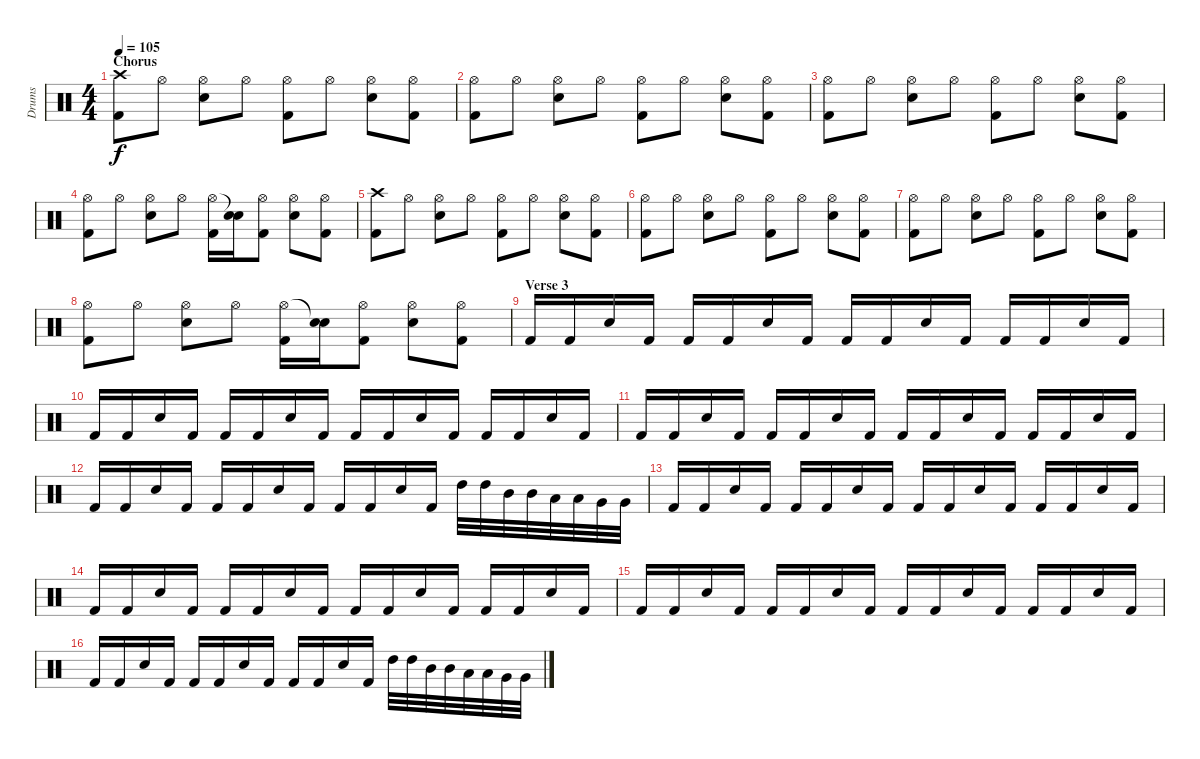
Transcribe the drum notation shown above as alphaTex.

\track ("Drums" "Drums") {instrument percussion}
\staff {score}
\articulation defaults
\ts (4 4)
\section ("" "Chorus")
\tempo 105
\clef neutral
\ks c
("Crash high (hit)" "Kick (hit) 2").8{dy f} "Hi-Hat (open)".8 ("Hi-Hat (open)" "Electric Snare (hit)").8 "Hi-Hat (open)".8 ("Hi-Hat (open)" "Kick (hit) 2").8 "Hi-Hat (open)".8 ("Hi-Hat (open)" "Electric Snare (hit)").8 ("Hi-Hat (open)" "Kick (hit) 2").8 |
("Hi-Hat (open)" "Kick (hit) 2").8 "Hi-Hat (open)".8 ("Hi-Hat (open)" "Electric Snare (hit)").8 "Hi-Hat (open)".8 ("Hi-Hat (open)" "Kick (hit) 2").8 "Hi-Hat (open)".8 ("Hi-Hat (open)" "Electric Snare (hit)").8 ("Hi-Hat (open)" "Kick (hit) 2").8 |
("Hi-Hat (open)" "Kick (hit) 2").8 "Hi-Hat (open)".8 ("Hi-Hat (open)" "Electric Snare (hit)").8 "Hi-Hat (open)".8 ("Hi-Hat (open)" "Kick (hit) 2").8 "Hi-Hat (open)".8 ("Hi-Hat (open)" "Electric Snare (hit)").8 ("Hi-Hat (open)" "Kick (hit) 2").8 |
("Hi-Hat (open)" "Kick (hit) 2").8 "Hi-Hat (open)".8 ("Hi-Hat (open)" "Electric Snare (hit)").8 "Hi-Hat (open)".8 ("Hi-Hat (open)" "Kick (hit) 2").16 ("Snare (hit)"{t} "Electric Snare (hit)").16 ("Hi-Hat (open)" "Kick (hit) 2").8 ("Hi-Hat (open)" "Electric Snare (hit)").8 ("Hi-Hat (open)" "Kick (hit) 2").8 |
("Crash high (hit)" "Kick (hit) 2").8 "Hi-Hat (open)".8 ("Hi-Hat (open)" "Electric Snare (hit)").8 "Hi-Hat (open)".8 ("Hi-Hat (open)" "Kick (hit) 2").8 "Hi-Hat (open)".8 ("Hi-Hat (open)" "Electric Snare (hit)").8 ("Hi-Hat (open)" "Kick (hit) 2").8 |
("Hi-Hat (open)" "Kick (hit) 2").8 "Hi-Hat (open)".8 ("Hi-Hat (open)" "Electric Snare (hit)").8 "Hi-Hat (open)".8 ("Hi-Hat (open)" "Kick (hit) 2").8 "Hi-Hat (open)".8 ("Hi-Hat (open)" "Electric Snare (hit)").8 ("Hi-Hat (open)" "Kick (hit) 2").8 |
("Hi-Hat (open)" "Kick (hit) 2").8 "Hi-Hat (open)".8 ("Hi-Hat (open)" "Electric Snare (hit)").8 "Hi-Hat (open)".8 ("Hi-Hat (open)" "Kick (hit) 2").8 "Hi-Hat (open)".8 ("Hi-Hat (open)" "Electric Snare (hit)").8 ("Hi-Hat (open)" "Kick (hit) 2").8 |
("Hi-Hat (open)" "Kick (hit) 2").8 "Hi-Hat (open)".8 ("Hi-Hat (open)" "Electric Snare (hit)").8 "Hi-Hat (open)".8 ("Hi-Hat (open)" "Kick (hit) 2").16 ("Snare (hit)"{t} "Electric Snare (hit)").16 ("Hi-Hat (open)" "Kick (hit) 2").8 ("Hi-Hat (open)" "Electric Snare (hit)").8 ("Hi-Hat (open)" "Kick (hit) 2").8 |
\section ("" "Verse 3")
"Kick (hit) 2".16 "Kick (hit) 2".16 "Electric Snare (hit)".16 "Kick (hit) 2".16 "Kick (hit) 2".16 "Kick (hit) 2".16 "Electric Snare (hit)".16 "Kick (hit) 2".16 "Kick (hit) 2".16 "Kick (hit) 2".16 "Electric Snare (hit)".16 "Kick (hit) 2".16 "Kick (hit) 2".16 "Kick (hit) 2".16 "Electric Snare (hit)".16 "Kick (hit) 2".16 |
"Kick (hit) 2".16 "Kick (hit) 2".16 "Electric Snare (hit)".16 "Kick (hit) 2".16 "Kick (hit) 2".16 "Kick (hit) 2".16 "Electric Snare (hit)".16 "Kick (hit) 2".16 "Kick (hit) 2".16 "Kick (hit) 2".16 "Electric Snare (hit)".16 "Kick (hit) 2".16 "Kick (hit) 2".16 "Kick (hit) 2".16 "Electric Snare (hit)".16 "Kick (hit) 2".16 |
"Kick (hit) 2".16 "Kick (hit) 2".16 "Electric Snare (hit)".16 "Kick (hit) 2".16 "Kick (hit) 2".16 "Kick (hit) 2".16 "Electric Snare (hit)".16 "Kick (hit) 2".16 "Kick (hit) 2".16 "Kick (hit) 2".16 "Electric Snare (hit)".16 "Kick (hit) 2".16 "Kick (hit) 2".16 "Kick (hit) 2".16 "Electric Snare (hit)".16 "Kick (hit) 2".16 |
"Kick (hit) 2".16 "Kick (hit) 2".16 "Electric Snare (hit)".16 "Kick (hit) 2".16 "Kick (hit) 2".16 "Kick (hit) 2".16 "Electric Snare (hit)".16 "Kick (hit) 2".16 "Kick (hit) 2".16 "Kick (hit) 2".16 "Electric Snare (hit)".16 "Kick (hit) 2".16 "High Tom (hit)".32 "High Tom (hit)".32 "Mid Tom (hit)".32 "Mid Tom (hit)".32 "Low Tom (hit)".32 "Low Tom (hit)".32 "Very Low Tom (hit)".32 "Very Low Tom (hit)".32 |
"Kick (hit) 2".16 "Kick (hit) 2".16 "Electric Snare (hit)".16 "Kick (hit) 2".16 "Kick (hit) 2".16 "Kick (hit) 2".16 "Electric Snare (hit)".16 "Kick (hit) 2".16 "Kick (hit) 2".16 "Kick (hit) 2".16 "Electric Snare (hit)".16 "Kick (hit) 2".16 "Kick (hit) 2".16 "Kick (hit) 2".16 "Electric Snare (hit)".16 "Kick (hit) 2".16 |
"Kick (hit) 2".16 "Kick (hit) 2".16 "Electric Snare (hit)".16 "Kick (hit) 2".16 "Kick (hit) 2".16 "Kick (hit) 2".16 "Electric Snare (hit)".16 "Kick (hit) 2".16 "Kick (hit) 2".16 "Kick (hit) 2".16 "Electric Snare (hit)".16 "Kick (hit) 2".16 "Kick (hit) 2".16 "Kick (hit) 2".16 "Electric Snare (hit)".16 "Kick (hit) 2".16 |
"Kick (hit) 2".16 "Kick (hit) 2".16 "Electric Snare (hit)".16 "Kick (hit) 2".16 "Kick (hit) 2".16 "Kick (hit) 2".16 "Electric Snare (hit)".16 "Kick (hit) 2".16 "Kick (hit) 2".16 "Kick (hit) 2".16 "Electric Snare (hit)".16 "Kick (hit) 2".16 "Kick (hit) 2".16 "Kick (hit) 2".16 "Electric Snare (hit)".16 "Kick (hit) 2".16 |
"Kick (hit) 2".16 "Kick (hit) 2".16 "Electric Snare (hit)".16 "Kick (hit) 2".16 "Kick (hit) 2".16 "Kick (hit) 2".16 "Electric Snare (hit)".16 "Kick (hit) 2".16 "Kick (hit) 2".16 "Kick (hit) 2".16 "Electric Snare (hit)".16 "Kick (hit) 2".16 "High Tom (hit)".32 "High Tom (hit)".32 "Mid Tom (hit)".32 "Mid Tom (hit)".32 "Low Tom (hit)".32 "Low Tom (hit)".32 "Very Low Tom (hit)".32 "Very Low Tom (hit)".32
